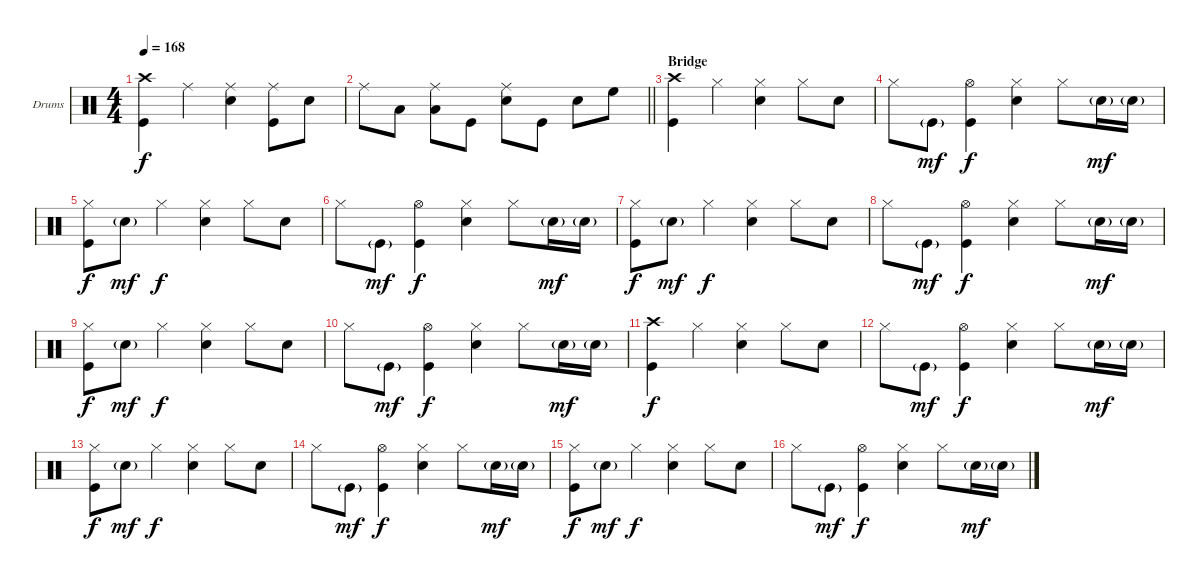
\bracketExtendMode groupsimilarinstruments
\firstSystemTrackNameOrientation horizontal
\otherSystemsTrackNameOrientation horizontal
\track ("Drumkit" "Drums") {solo instrument percussion}
\staff {score}
\articulation defaults
\ts (4 4)
\tempo 168
\clef neutral
\ks c
("Crash high (hit)" "Kick (hit)").4{dy f} "Ride (middle)".4 ("Ride (middle)" "Snare (hit) 2").4 ("Ride (middle)" "Kick (hit)").8 "Snare (hit) 2".8 |
\barLineRight lightlight "Ride (middle)".8 "Low Tom (hit)".8
("Ride (middle)" "Low Tom (hit)").8 "Kick (hit)".8 ("Ride (middle)" "Snare (hit) 2").8 "Kick (hit)".8 "Snare (hit) 2".8 "High Floor Tom (hit)".8 |
\section ("" "Bridge")
("Crash high (hit)" "Kick (hit)").4 "Hi-Hat (closed)".4 ("Hi-Hat (closed)" "Snare (hit) 2").4 "Hi-Hat (closed)".8 "Snare (hit) 2".8 |
"Hi-Hat (closed)".8 "Kick (hit)"{g}.8{dy mf} ("Hi-Hat (open)" "Kick (hit)").4{dy f} ("Hi-Hat (closed)" "Snare (hit) 2").4 "Hi-Hat (closed)".8 "Snare (hit) 2"{g}.16{dy mf} "Snare (hit) 2"{g}.16 |
("Hi-Hat (closed)" "Kick (hit)").8{dy f} "Snare (hit) 2"{g}.8{dy mf} "Hi-Hat (closed)".4{dy f} ("Hi-Hat (closed)" "Snare (hit) 2").4 "Hi-Hat (closed)".8 "Snare (hit) 2".8 |
"Hi-Hat (closed)".8 "Kick (hit)"{g}.8{dy mf} ("Hi-Hat (open)" "Kick (hit)").4{dy f} ("Hi-Hat (closed)" "Snare (hit) 2").4 "Hi-Hat (closed)".8 "Snare (hit) 2"{g}.16{dy mf} "Snare (hit) 2"{g}.16 |
("Hi-Hat (closed)" "Kick (hit)").8{dy f} "Snare (hit) 2"{g}.8{dy mf} "Hi-Hat (closed)".4{dy f} ("Hi-Hat (closed)" "Snare (hit) 2").4 "Hi-Hat (closed)".8 "Snare (hit) 2".8 |
"Hi-Hat (closed)".8 "Kick (hit)"{g}.8{dy mf} ("Hi-Hat (open)" "Kick (hit)").4{dy f} ("Hi-Hat (closed)" "Snare (hit) 2").4 "Hi-Hat (closed)".8 "Snare (hit) 2"{g}.16{dy mf} "Snare (hit) 2"{g}.16 |
("Hi-Hat (closed)" "Kick (hit)").8{dy f} "Snare (hit) 2"{g}.8{dy mf} "Hi-Hat (closed)".4{dy f} ("Hi-Hat (closed)" "Snare (hit) 2").4 "Hi-Hat (closed)".8 "Snare (hit) 2".8 |
"Hi-Hat (closed)".8 "Kick (hit)"{g}.8{dy mf} ("Hi-Hat (open)" "Kick (hit)").4{dy f} ("Hi-Hat (closed)" "Snare (hit) 2").4 "Hi-Hat (closed)".8 "Snare (hit) 2"{g}.16{dy mf} "Snare (hit) 2"{g}.16 |
("Crash high (hit)" "Kick (hit)").4{dy f} "Hi-Hat (closed)".4 ("Hi-Hat (closed)" "Snare (hit) 2").4 "Hi-Hat (closed)".8 "Snare (hit) 2".8 |
"Hi-Hat (closed)".8 "Kick (hit)"{g}.8{dy mf} ("Hi-Hat (open)" "Kick (hit)").4{dy f} ("Hi-Hat (closed)" "Snare (hit) 2").4 "Hi-Hat (closed)".8 "Snare (hit) 2"{g}.16{dy mf} "Snare (hit) 2"{g}.16 |
("Hi-Hat (closed)" "Kick (hit)").8{dy f} "Snare (hit) 2"{g}.8{dy mf} "Hi-Hat (closed)".4{dy f} ("Hi-Hat (closed)" "Snare (hit) 2").4 "Hi-Hat (closed)".8 "Snare (hit) 2".8 |
"Hi-Hat (closed)".8 "Kick (hit)"{g}.8{dy mf} ("Hi-Hat (open)" "Kick (hit)").4{dy f} ("Hi-Hat (closed)" "Snare (hit) 2").4 "Hi-Hat (closed)".8 "Snare (hit) 2"{g}.16{dy mf} "Snare (hit) 2"{g}.16 |
("Hi-Hat (closed)" "Kick (hit)").8{dy f} "Snare (hit) 2"{g}.8{dy mf} "Hi-Hat (closed)".4{dy f} ("Hi-Hat (closed)" "Snare (hit) 2").4 "Hi-Hat (closed)".8 "Snare (hit) 2".8 |
"Hi-Hat (closed)".8 "Kick (hit)"{g}.8{dy mf} ("Hi-Hat (open)" "Kick (hit)").4{dy f} ("Hi-Hat (closed)" "Snare (hit) 2").4 "Hi-Hat (closed)".8 "Snare (hit) 2"{g}.16{dy mf} "Snare (hit) 2"{g}.16
